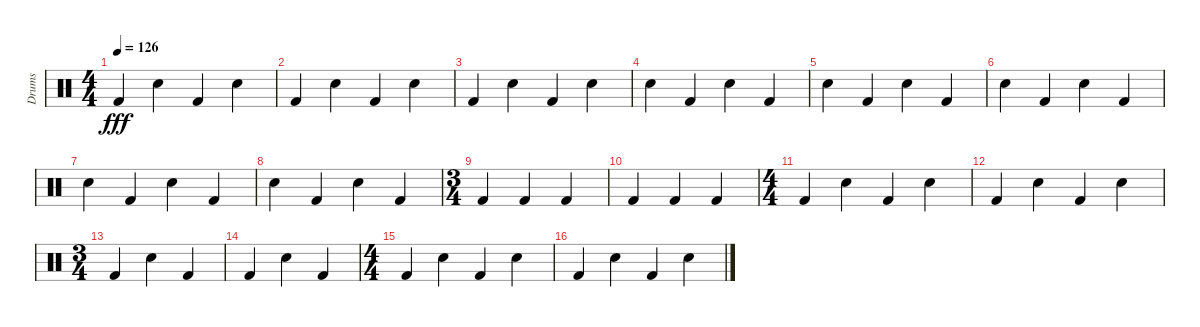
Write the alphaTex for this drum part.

\track ("Drums" "Drums") {instrument percussion}
\staff {score}
\articulation defaults
\ts (4 4)
\tempo 126
\clef neutral
\ks c "Kick (hit) 2".4{dy fff} "Snare (hit) 2".4 "Kick (hit) 2".4 "Snare (hit) 2".4
|
"Kick (hit) 2".4 "Snare (hit) 2".4 "Kick (hit) 2".4 "Snare (hit) 2".4 |
"Kick (hit) 2".4 "Snare (hit) 2".4 "Kick (hit) 2".4 "Snare (hit) 2".4 |
"Snare (hit) 2".4 "Kick (hit) 2".4 "Snare (hit) 2".4 "Kick (hit) 2".4 |
"Snare (hit) 2".4 "Kick (hit) 2".4 "Snare (hit) 2".4 "Kick (hit) 2".4 |
"Snare (hit) 2".4 "Kick (hit) 2".4 "Snare (hit) 2".4 "Kick (hit) 2".4 |
"Snare (hit) 2".4 "Kick (hit) 2".4 "Snare (hit) 2".4 "Kick (hit) 2".4 |
"Snare (hit) 2".4 "Kick (hit) 2".4 "Snare (hit) 2".4 "Kick (hit) 2".4 |
\ts (3 4)
"Kick (hit) 2".4 "Kick (hit) 2".4 "Kick (hit) 2".4 |
"Kick (hit) 2".4 "Kick (hit) 2".4 "Kick (hit) 2".4 |
\ts (4 4)
"Kick (hit) 2".4 "Snare (hit) 2".4 "Kick (hit) 2".4 "Snare (hit) 2".4 |
"Kick (hit) 2".4 "Snare (hit) 2".4 "Kick (hit) 2".4 "Snare (hit) 2".4 |
\ts (3 4)
"Kick (hit) 2".4 "Snare (hit) 2".4 "Kick (hit) 2".4 |
"Kick (hit) 2".4 "Snare (hit) 2".4 "Kick (hit) 2".4 |
\ts (4 4)
"Kick (hit) 2".4 "Snare (hit) 2".4 "Kick (hit) 2".4 "Snare (hit) 2".4 |
"Kick (hit) 2".4 "Snare (hit) 2".4 "Kick (hit) 2".4 "Snare (hit) 2".4
